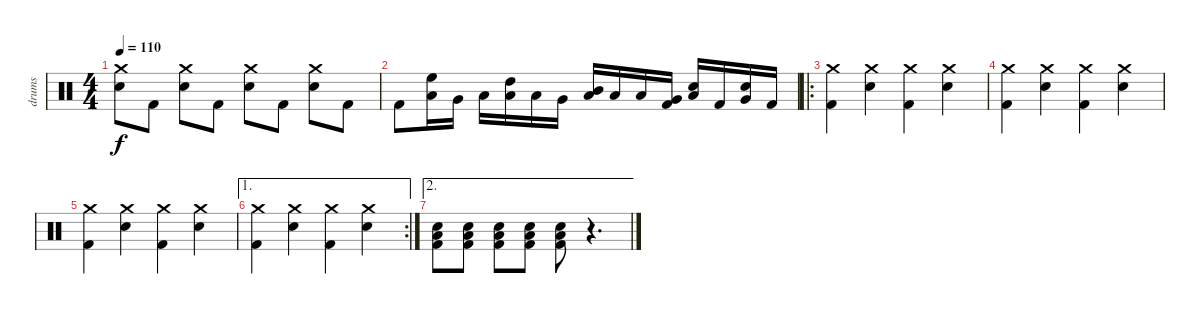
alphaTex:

\track ("drums" "drums") {instrument percussion}
\staff {score}
\articulation defaults
\ts (4 4)
\tempo 110
\clef neutral
\ks c
("Crash medium (hit)" "Electric Snare (hit)").8{dy f} "Kick (hit) 2".8 ("Crash medium (hit)" "Electric Snare (hit)").8 "Kick (hit) 2".8 ("Crash medium (hit)" "Electric Snare (hit)").8 "Kick (hit) 2".8 ("Crash medium (hit)" "Electric Snare (hit)").8 "Kick (hit) 2".8 |
"Kick (hit) 2".8 ("High Floor Tom (hit)" "Low Tom (hit)").16 "Very Low Tom (hit)".16 "Low Tom (hit)".16 ("High Tom (hit)" "Low Floor Tom (hit)").16 "Low Tom (hit)".16 "Very Low Tom (hit)".16 ("Mid Tom (hit)" "Low Tom (hit)").16 "Low Floor Tom (hit)".16 "Low Tom (hit)".16 ("Very Low Tom (hit)" "Kick (hit) 2").16 ("Electric Snare (hit)" "Low Tom (hit)").16 "Kick (hit) 2".16 ("Electric Snare (hit)" "Very Low Tom (hit)").16 "Kick (hit) 2".16 |
\ro
("Crash medium (hit)" "Kick (hit) 2").4 ("Crash medium (hit)" "Electric Snare (hit)").4 ("Crash medium (hit)" "Kick (hit) 2").4 ("Crash medium (hit)" "Electric Snare (hit)").4 |
("Crash medium (hit)" "Kick (hit) 2").4 ("Crash medium (hit)" "Electric Snare (hit)").4 ("Crash medium (hit)" "Kick (hit) 2").4 ("Crash medium (hit)" "Electric Snare (hit)").4 |
("Crash medium (hit)" "Kick (hit) 2").4 ("Crash medium (hit)" "Electric Snare (hit)").4 ("Crash medium (hit)" "Kick (hit) 2").4 ("Crash medium (hit)" "Electric Snare (hit)").4 |
\ae 1
\rc 2
("Crash medium (hit)" "Kick (hit) 2").4 ("Crash medium (hit)" "Electric Snare (hit)").4 ("Crash medium (hit)" "Kick (hit) 2").4 ("Crash medium (hit)" "Electric Snare (hit)").4 |
\ae 2
("Low Floor Tom (hit)" "Electric Snare (hit)" "Kick (hit) 2").8 ("Low Floor Tom (hit)" "Electric Snare (hit)" "Kick (hit) 2").8 ("Low Floor Tom (hit)" "Electric Snare (hit)" "Kick (hit) 2").8 ("Low Floor Tom (hit)" "Electric Snare (hit)" "Kick (hit) 2").8 ("Low Floor Tom (hit)" "Electric Snare (hit)" "Kick (hit) 2").8 r.4{d}
